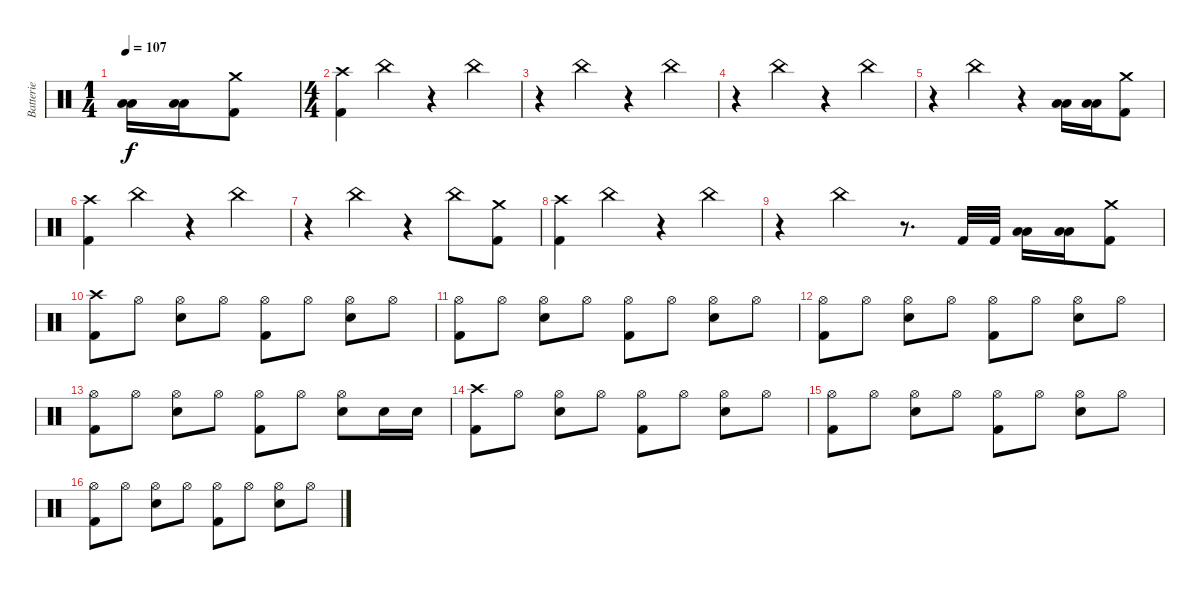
\track ("Batterie" "Batterie") {instrument percussion}
\staff {score}
\articulation defaults
\ts (1 4)
\tempo 107
\clef neutral
\ks c
("Low Tom (hit)" "Low Floor Tom (hit)").16{bu 60 dy f} ("Low Tom (hit)" "Low Floor Tom (hit)").16{bu 60} ("Crash medium (hit)" "Kick (hit) 2").8 |
\ts (4 4)
("Crash high (hit)" "Kick (hit) 2").4 "China (hit)".4 r.4 "China (hit)".4 |
r.4 "China (hit)".4 r.4 "China (hit)".4 |
r.4 "China (hit)".4 r.4 "China (hit)".4 |
r.4 "China (hit)".4 r.4 ("Low Tom (hit)" "Low Floor Tom (hit)").16{bu 60} ("Low Tom (hit)" "Low Floor Tom (hit)").16{bu 60} ("Crash medium (hit)" "Kick (hit) 2").8 |
("Crash high (hit)" "Kick (hit) 2").4 "China (hit)".4 r.4 "China (hit)".4 |
r.4 "China (hit)".4 r.4 "China (hit)".8 ("Crash medium (hit)" "Kick (hit) 2").8 |
("Crash high (hit)" "Kick (hit) 2").4 "China (hit)".4 r.4 "China (hit)".4 |
r.4 "China (hit)".4 r.8{d} "Kick (hit) 2".32 "Kick (hit) 2".32 ("Low Tom (hit)" "Low Floor Tom (hit)").16{bu 60} ("Low Tom (hit)" "Low Floor Tom (hit)").16{bu 60} ("Crash medium (hit)" "Kick (hit) 2").8 |
("Crash high (hit)" "Kick (hit) 2").8 "Hi-Hat (open)".8 ("Hi-Hat (open)" "Electric Snare (hit)").8 "Hi-Hat (open)".8 ("Hi-Hat (open)" "Kick (hit) 2").8 "Hi-Hat (open)".8 ("Hi-Hat (open)" "Electric Snare (hit)").8 "Hi-Hat (open)".8 |
("Hi-Hat (open)" "Kick (hit) 2").8 "Hi-Hat (open)".8 ("Hi-Hat (open)" "Electric Snare (hit)").8 "Hi-Hat (open)".8 ("Hi-Hat (open)" "Kick (hit) 2").8 "Hi-Hat (open)".8 ("Hi-Hat (open)" "Electric Snare (hit)").8 "Hi-Hat (open)".8 |
("Hi-Hat (open)" "Kick (hit) 2").8 "Hi-Hat (open)".8 ("Hi-Hat (open)" "Electric Snare (hit)").8 "Hi-Hat (open)".8 ("Hi-Hat (open)" "Kick (hit) 2").8 "Hi-Hat (open)".8 ("Hi-Hat (open)" "Electric Snare (hit)").8 "Hi-Hat (open)".8 |
("Hi-Hat (open)" "Kick (hit) 2").8 "Hi-Hat (open)".8 ("Hi-Hat (open)" "Electric Snare (hit)").8 "Hi-Hat (open)".8 ("Hi-Hat (open)" "Kick (hit) 2").8 "Hi-Hat (open)".8 ("Hi-Hat (open)" "Electric Snare (hit)").8 "Electric Snare (hit)".16 "Electric Snare (hit)".16 |
("Crash high (hit)" "Kick (hit) 2").8 "Hi-Hat (open)".8 ("Hi-Hat (open)" "Electric Snare (hit)").8 "Hi-Hat (open)".8 ("Hi-Hat (open)" "Kick (hit) 2").8 "Hi-Hat (open)".8 ("Hi-Hat (open)" "Electric Snare (hit)").8 "Hi-Hat (open)".8 |
("Hi-Hat (open)" "Kick (hit) 2").8 "Hi-Hat (open)".8 ("Hi-Hat (open)" "Electric Snare (hit)").8 "Hi-Hat (open)".8 ("Hi-Hat (open)" "Kick (hit) 2").8 "Hi-Hat (open)".8 ("Hi-Hat (open)" "Electric Snare (hit)").8 "Hi-Hat (open)".8 |
("Hi-Hat (open)" "Kick (hit) 2").8 "Hi-Hat (open)".8 ("Hi-Hat (open)" "Electric Snare (hit)").8 "Hi-Hat (open)".8 ("Hi-Hat (open)" "Kick (hit) 2").8 "Hi-Hat (open)".8 ("Hi-Hat (open)" "Electric Snare (hit)").8 "Hi-Hat (open)".8
